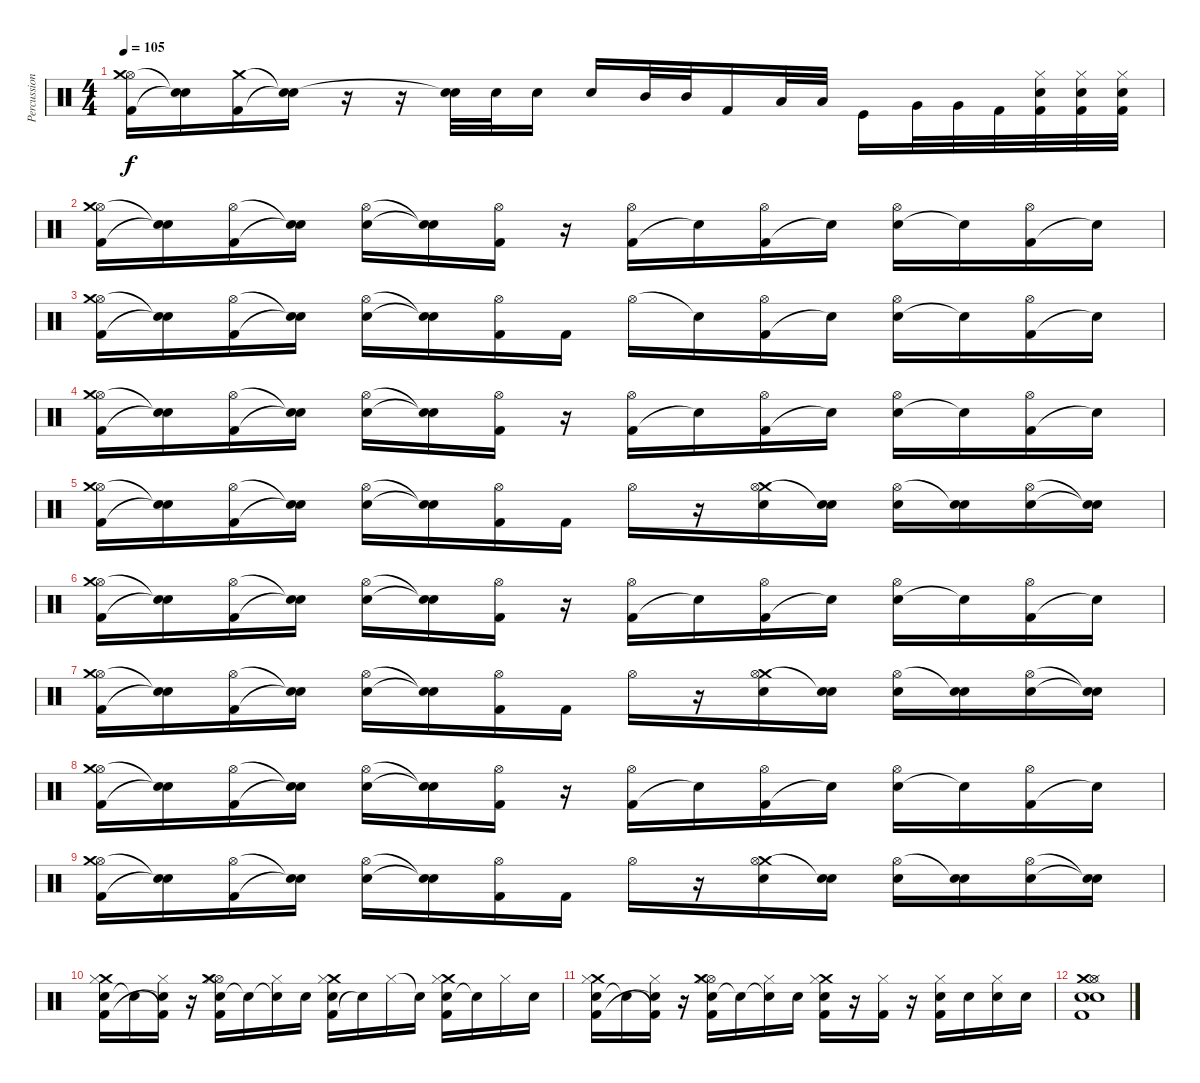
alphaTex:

\track ("Percussion" "Percussion") {instrument percussion}
\staff {score}
\articulation defaults
\ts (4 4)
\tempo 105
\clef neutral
\ks c
("Kick (hit) 2" "Hi-Hat (open)" "Crash medium (hit)").16{dy f} ("Snare (hit)"{t} "Snare (hit)"{t}).16 ("Kick (hit) 2" "Crash medium (hit)").16 ("Snare (hit)"{t} "Snare (hit)"{t}).16 r.16 r.16 ("Snare (hit) 2" "Snare (hit)"{t}).32 "Snare (hit) 2".32 "Snare (hit) 2".16 "Snare (hit) 2".16 "Mid Tom (hit)".32 "Mid Tom (hit)".32 "Kick (hit) 2".16 "Low Tom (hit)".32 "Low Tom (hit)".32 "Kick (hit)".16 "Very Low Tom (hit)".32 "Very Low Tom (hit)".32 "Kick (hit) 2".32 ("Snare (hit) 2" "Kick (hit) 2" "Hi-Hat (closed)").32 ("Kick (hit) 2" "Snare (hit) 2" "Hi-Hat (closed)").32 ("Kick (hit) 2" "Snare (hit) 2" "Hi-Hat (closed)").32 |
("Kick (hit) 2" "Hi-Hat (open)" "Crash medium (hit)").16 ("Snare (hit)"{t} "Snare (hit)"{t}).16 ("Kick (hit) 2" "Hi-Hat (open)").16 ("Snare (hit)"{t} "Snare (hit)"{t}).16 ("Electric Snare (hit)" "Hi-Hat (open)").16 ("Snare (hit)"{t} "Snare (hit)"{t}).16 ("Kick (hit) 2" "Hi-Hat (open)").16 r.16 ("Kick (hit) 2" "Hi-Hat (open)").16 "Snare (hit)"{t}.16 ("Kick (hit) 2" "Hi-Hat (open)").16 "Snare (hit)"{t}.16 ("Snare (hit) 2" "Hi-Hat (open)").16 "Snare (hit)"{t}.16 ("Kick (hit) 2" "Hi-Hat (open)").16 "Snare (hit)"{t}.16 |
("Kick (hit) 2" "Hi-Hat (open)" "Crash medium (hit)").16 ("Snare (hit)"{t} "Snare (hit)"{t}).16 ("Kick (hit) 2" "Hi-Hat (open)").16 ("Snare (hit)"{t} "Snare (hit)"{t}).16 ("Electric Snare (hit)" "Hi-Hat (open)").16 ("Snare (hit)"{t} "Snare (hit)"{t}).16 ("Kick (hit) 2" "Hi-Hat (open)").16 "Kick (hit) 2".16 "Hi-Hat (open)".16 "Snare (hit)"{t}.16 ("Kick (hit) 2" "Hi-Hat (open)").16 "Snare (hit)"{t}.16 ("Snare (hit) 2" "Hi-Hat (open)").16 "Snare (hit)"{t}.16 ("Kick (hit) 2" "Hi-Hat (open)").16 "Snare (hit)"{t}.16 |
("Kick (hit) 2" "Hi-Hat (open)" "Crash medium (hit)").16 ("Snare (hit)"{t} "Snare (hit)"{t}).16 ("Kick (hit) 2" "Hi-Hat (open)").16 ("Snare (hit)"{t} "Snare (hit)"{t}).16 ("Electric Snare (hit)" "Hi-Hat (open)").16 ("Snare (hit)"{t} "Snare (hit)"{t}).16 ("Kick (hit) 2" "Hi-Hat (open)").16 r.16 ("Kick (hit) 2" "Hi-Hat (open)").16 "Snare (hit)"{t}.16 ("Kick (hit) 2" "Hi-Hat (open)").16 "Snare (hit)"{t}.16 ("Snare (hit) 2" "Hi-Hat (open)").16 "Snare (hit)"{t}.16 ("Kick (hit) 2" "Hi-Hat (open)").16 "Snare (hit)"{t}.16 |
("Kick (hit) 2" "Hi-Hat (open)" "Crash medium (hit)").16 ("Snare (hit)"{t} "Snare (hit)"{t}).16 ("Kick (hit) 2" "Hi-Hat (open)").16 ("Snare (hit)"{t} "Snare (hit)"{t}).16 ("Electric Snare (hit)" "Hi-Hat (open)").16 ("Snare (hit)"{t} "Snare (hit)"{t}).16 ("Kick (hit) 2" "Hi-Hat (open)").16 "Kick (hit) 2".16 "Hi-Hat (open)".16 r.16 ("Snare (hit) 2" "Crash medium (hit)" "Hi-Hat (open)").16 ("Snare (hit) 2" "Snare (hit)"{t}).16 ("Snare (hit) 2" "Hi-Hat (open)").16 ("Snare (hit) 2" "Snare (hit)"{t}).16 ("Snare (hit) 2" "Hi-Hat (open)").16 ("Snare (hit) 2"{t} "Snare (hit)"{t}).16 |
("Kick (hit) 2" "Hi-Hat (open)" "Crash medium (hit)").16 ("Snare (hit)"{t} "Snare (hit)"{t}).16 ("Kick (hit) 2" "Hi-Hat (open)").16 ("Snare (hit)"{t} "Snare (hit)"{t}).16 ("Electric Snare (hit)" "Hi-Hat (open)").16 ("Snare (hit)"{t} "Snare (hit)"{t}).16 ("Kick (hit) 2" "Hi-Hat (open)").16 r.16 ("Kick (hit) 2" "Hi-Hat (open)").16 "Snare (hit)"{t}.16 ("Kick (hit) 2" "Hi-Hat (open)").16 "Snare (hit)"{t}.16 ("Snare (hit) 2" "Hi-Hat (open)").16 "Snare (hit)"{t}.16 ("Kick (hit) 2" "Hi-Hat (open)").16 "Snare (hit)"{t}.16 |
("Kick (hit) 2" "Hi-Hat (open)" "Crash medium (hit)").16 ("Snare (hit)"{t} "Snare (hit)"{t}).16 ("Kick (hit) 2" "Hi-Hat (open)").16 ("Snare (hit)"{t} "Snare (hit)"{t}).16 ("Electric Snare (hit)" "Hi-Hat (open)").16 ("Snare (hit)"{t} "Snare (hit)"{t}).16 ("Kick (hit) 2" "Hi-Hat (open)").16 "Kick (hit) 2".16 "Hi-Hat (open)".16 r.16 ("Snare (hit) 2" "Crash medium (hit)" "Hi-Hat (open)").16 ("Snare (hit) 2" "Snare (hit)"{t}).16 ("Snare (hit) 2" "Hi-Hat (open)").16 ("Snare (hit) 2" "Snare (hit)"{t}).16 ("Snare (hit) 2" "Hi-Hat (open)").16 ("Snare (hit) 2"{t} "Snare (hit)"{t}).16 |
("Kick (hit) 2" "Hi-Hat (open)" "Crash medium (hit)").16 ("Snare (hit)"{t} "Snare (hit)"{t}).16 ("Kick (hit) 2" "Hi-Hat (open)").16 ("Snare (hit)"{t} "Snare (hit)"{t}).16 ("Electric Snare (hit)" "Hi-Hat (open)").16 ("Snare (hit)"{t} "Snare (hit)"{t}).16 ("Kick (hit) 2" "Hi-Hat (open)").16 r.16 ("Kick (hit) 2" "Hi-Hat (open)").16 "Snare (hit)"{t}.16 ("Kick (hit) 2" "Hi-Hat (open)").16 "Snare (hit)"{t}.16 ("Snare (hit) 2" "Hi-Hat (open)").16 "Snare (hit)"{t}.16 ("Kick (hit) 2" "Hi-Hat (open)").16 "Snare (hit)"{t}.16 |
("Kick (hit) 2" "Hi-Hat (open)" "Crash medium (hit)").16 ("Snare (hit)"{t} "Snare (hit)"{t}).16 ("Kick (hit) 2" "Hi-Hat (open)").16 ("Snare (hit)"{t} "Snare (hit)"{t}).16 ("Electric Snare (hit)" "Hi-Hat (open)").16 ("Snare (hit)"{t} "Snare (hit)"{t}).16 ("Kick (hit) 2" "Hi-Hat (open)").16 "Kick (hit) 2".16 "Hi-Hat (open)".16 r.16 ("Snare (hit) 2" "Crash medium (hit)" "Hi-Hat (open)").16 ("Snare (hit) 2" "Snare (hit)"{t}).16 ("Snare (hit) 2" "Hi-Hat (open)").16 ("Snare (hit) 2" "Snare (hit)"{t}).16 ("Snare (hit) 2" "Hi-Hat (open)").16 ("Snare (hit) 2"{t} "Snare (hit)"{t}).16 |
("Snare (hit) 2" "Kick (hit) 2" "Crash medium (hit)" "Hi-Hat (closed)").16 "Snare (hit)"{t}.16 ("Kick (hit) 2"{t} "Snare (hit) 2"{t} "Hi-Hat (closed)").16 r.16 ("Snare (hit) 2" "Hi-Hat (open)" "Kick (hit) 2" "Crash medium (hit)" "Hi-Hat (closed)").16 "Snare (hit)"{t}.16 ("Snare (hit)"{t} "Hi-Hat (closed)").16 "Snare (hit) 2".16 ("Kick (hit) 2" "Snare (hit) 2" "Crash medium (hit)" "Hi-Hat (closed)").16 "Snare (hit)"{t}.16 "Hi-Hat (closed)".16 "Snare (hit)"{t}.16 ("Snare (hit) 2" "Kick (hit) 2" "Crash medium (hit)" "Hi-Hat (closed)").16 "Snare (hit)"{t}.16 "Hi-Hat (closed)".16 "Snare (hit) 2".16 |
("Snare (hit) 2" "Kick (hit) 2" "Crash medium (hit)" "Hi-Hat (closed)").16 "Snare (hit)"{t}.16 ("Kick (hit) 2"{t} "Snare (hit) 2"{t} "Hi-Hat (closed)").16 r.16 ("Snare (hit) 2" "Hi-Hat (open)" "Kick (hit) 2" "Crash medium (hit)" "Hi-Hat (closed)").16 "Snare (hit)"{t}.16 ("Snare (hit)"{t} "Hi-Hat (closed)").16 "Snare (hit) 2".16 ("Kick (hit) 2" "Snare (hit) 2" "Crash medium (hit)" "Hi-Hat (closed)").16 r.16 ("Kick (hit) 2" "Hi-Hat (closed)").16 r.16 ("Snare (hit) 2" "Kick (hit) 2" "Hi-Hat (closed)").16 "Snare (hit) 2".16 ("Snare (hit) 2" "Hi-Hat (closed)").16 "Snare (hit) 2".16 |
("Crash medium (hit)" "Hi-Hat (open)" "Snare (hit) 2" "Hi-Hat (closed)" "Electric Snare (hit)" "Kick (hit) 2").1
